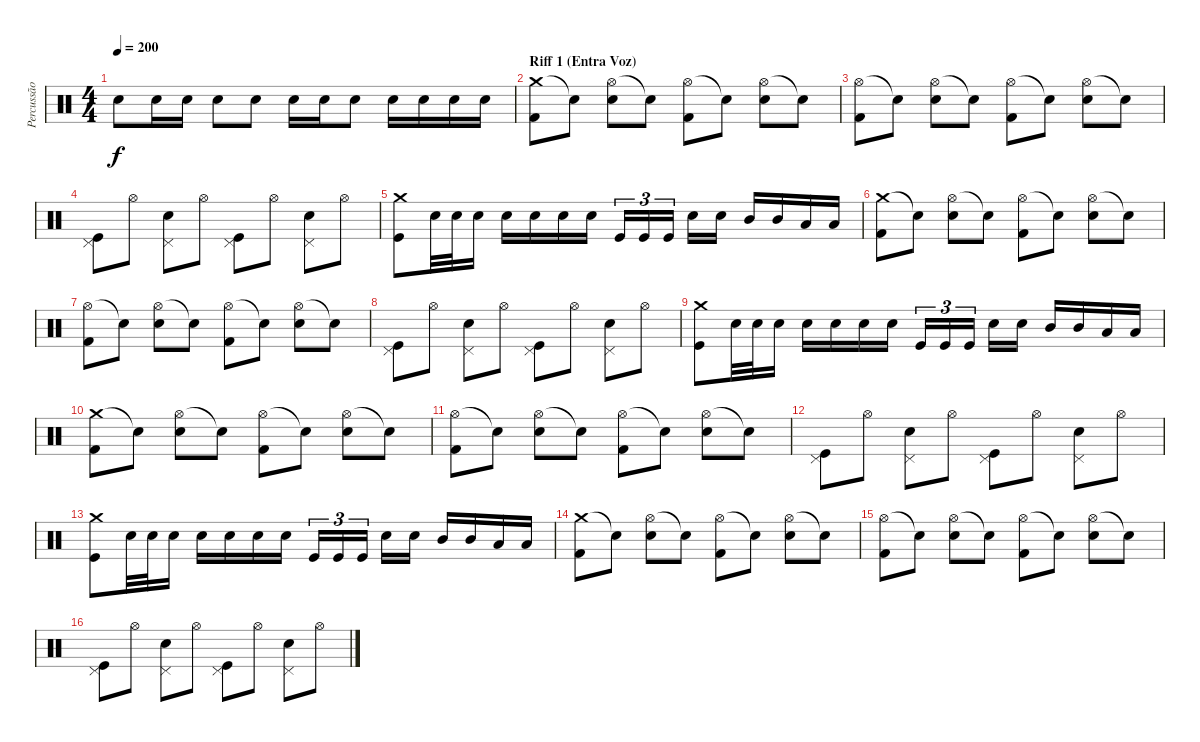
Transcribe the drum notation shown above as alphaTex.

\track ("Percussão" "Percussão") {instrument percussion}
\staff {score}
\articulation defaults
\ts (4 4)
\tempo 200
\clef neutral
\ks c "Electric Snare (hit)".8{dy f} "Electric Snare (hit)".16 "Electric Snare (hit)".16 "Electric Snare (hit)".8 "Electric Snare (hit)".8 "Electric Snare (hit)".16 "Electric Snare (hit)".16 "Electric Snare (hit)".8 "Electric Snare (hit)".16 "Electric Snare (hit)".16 "Electric Snare (hit)".16 "Electric Snare (hit)".16
|
\section ("" "Riff 1 (Entra Voz)")
("Crash medium (hit)" "Kick (hit) 2").8 "Snare (hit)"{t}.8 ("Hi-Hat (open)" "Electric Snare (hit)").8 "Snare (hit)"{t}.8 ("Hi-Hat (open)" "Kick (hit) 2").8 "Snare (hit)"{t}.8 ("Hi-Hat (open)" "Electric Snare (hit)").8 "Snare (hit)"{t}.8 |
("Hi-Hat (open)" "Kick (hit) 2").8 "Snare (hit)"{t}.8 ("Hi-Hat (open)" "Electric Snare (hit)").8 "Snare (hit)"{t}.8 ("Hi-Hat (open)" "Kick (hit) 2").8 "Snare (hit)"{t}.8 ("Hi-Hat (open)" "Electric Snare (hit)").8 "Snare (hit)"{t}.8 |
("Pedal Hi-Hat (hit)" "Kick (hit)").8 "Hi-Hat (open)".8 ("Pedal Hi-Hat (hit)" "Electric Snare (hit)").8 "Hi-Hat (open)".8 ("Pedal Hi-Hat (hit)" "Kick (hit)").8 "Hi-Hat (open)".8 ("Pedal Hi-Hat (hit)" "Electric Snare (hit)").8 "Hi-Hat (open)".8 |
("Crash medium (hit)" "Kick (hit)").8 "Electric Snare (hit)".32 "Electric Snare (hit)".32 "Electric Snare (hit)".16 "Electric Snare (hit)".16 "Electric Snare (hit)".16 "Electric Snare (hit)".16 "Electric Snare (hit)".16 "Kick (hit)".16{tu (3 2)} "Kick (hit)".16{tu (3 2)} "Kick (hit)".16{tu (3 2)} "Electric Snare (hit)".16 "Electric Snare (hit)".16 "Mid Tom (hit)".16 "Mid Tom (hit)".16 "Low Tom (hit)".16 "Low Tom (hit)".16 |
("Crash medium (hit)" "Kick (hit) 2").8 "Snare (hit)"{t}.8 ("Hi-Hat (open)" "Electric Snare (hit)").8 "Snare (hit)"{t}.8 ("Hi-Hat (open)" "Kick (hit) 2").8 "Snare (hit)"{t}.8 ("Hi-Hat (open)" "Electric Snare (hit)").8 "Snare (hit)"{t}.8 |
("Hi-Hat (open)" "Kick (hit) 2").8 "Snare (hit)"{t}.8 ("Hi-Hat (open)" "Electric Snare (hit)").8 "Snare (hit)"{t}.8 ("Hi-Hat (open)" "Kick (hit) 2").8 "Snare (hit)"{t}.8 ("Hi-Hat (open)" "Electric Snare (hit)").8 "Snare (hit)"{t}.8 |
("Pedal Hi-Hat (hit)" "Kick (hit)").8 "Hi-Hat (open)".8 ("Pedal Hi-Hat (hit)" "Electric Snare (hit)").8 "Hi-Hat (open)".8 ("Pedal Hi-Hat (hit)" "Kick (hit)").8 "Hi-Hat (open)".8 ("Pedal Hi-Hat (hit)" "Electric Snare (hit)").8 "Hi-Hat (open)".8 |
("Crash medium (hit)" "Kick (hit)").8 "Electric Snare (hit)".32 "Electric Snare (hit)".32 "Electric Snare (hit)".16 "Electric Snare (hit)".16 "Electric Snare (hit)".16 "Electric Snare (hit)".16 "Electric Snare (hit)".16 "Kick (hit)".16{tu (3 2)} "Kick (hit)".16{tu (3 2)} "Kick (hit)".16{tu (3 2)} "Electric Snare (hit)".16 "Electric Snare (hit)".16 "Mid Tom (hit)".16 "Mid Tom (hit)".16 "Low Tom (hit)".16 "Low Tom (hit)".16 |
("Crash medium (hit)" "Kick (hit) 2").8 "Snare (hit)"{t}.8 ("Hi-Hat (open)" "Electric Snare (hit)").8 "Snare (hit)"{t}.8 ("Hi-Hat (open)" "Kick (hit) 2").8 "Snare (hit)"{t}.8 ("Hi-Hat (open)" "Electric Snare (hit)").8 "Snare (hit)"{t}.8 |
("Hi-Hat (open)" "Kick (hit) 2").8 "Snare (hit)"{t}.8 ("Hi-Hat (open)" "Electric Snare (hit)").8 "Snare (hit)"{t}.8 ("Hi-Hat (open)" "Kick (hit) 2").8 "Snare (hit)"{t}.8 ("Hi-Hat (open)" "Electric Snare (hit)").8 "Snare (hit)"{t}.8 |
("Pedal Hi-Hat (hit)" "Kick (hit)").8 "Hi-Hat (open)".8 ("Pedal Hi-Hat (hit)" "Electric Snare (hit)").8 "Hi-Hat (open)".8 ("Pedal Hi-Hat (hit)" "Kick (hit)").8 "Hi-Hat (open)".8 ("Pedal Hi-Hat (hit)" "Electric Snare (hit)").8 "Hi-Hat (open)".8 |
("Crash medium (hit)" "Kick (hit)").8 "Electric Snare (hit)".32 "Electric Snare (hit)".32 "Electric Snare (hit)".16 "Electric Snare (hit)".16 "Electric Snare (hit)".16 "Electric Snare (hit)".16 "Electric Snare (hit)".16 "Kick (hit)".16{tu (3 2)} "Kick (hit)".16{tu (3 2)} "Kick (hit)".16{tu (3 2)} "Electric Snare (hit)".16 "Electric Snare (hit)".16 "Mid Tom (hit)".16 "Mid Tom (hit)".16 "Low Tom (hit)".16 "Low Tom (hit)".16 |
("Crash medium (hit)" "Kick (hit) 2").8 "Snare (hit)"{t}.8 ("Hi-Hat (open)" "Electric Snare (hit)").8 "Snare (hit)"{t}.8 ("Hi-Hat (open)" "Kick (hit) 2").8 "Snare (hit)"{t}.8 ("Hi-Hat (open)" "Electric Snare (hit)").8 "Snare (hit)"{t}.8 |
("Hi-Hat (open)" "Kick (hit) 2").8 "Snare (hit)"{t}.8 ("Hi-Hat (open)" "Electric Snare (hit)").8 "Snare (hit)"{t}.8 ("Hi-Hat (open)" "Kick (hit) 2").8 "Snare (hit)"{t}.8 ("Hi-Hat (open)" "Electric Snare (hit)").8 "Snare (hit)"{t}.8 |
("Pedal Hi-Hat (hit)" "Kick (hit)").8 "Hi-Hat (open)".8 ("Pedal Hi-Hat (hit)" "Electric Snare (hit)").8 "Hi-Hat (open)".8 ("Pedal Hi-Hat (hit)" "Kick (hit)").8 "Hi-Hat (open)".8 ("Pedal Hi-Hat (hit)" "Electric Snare (hit)").8 "Hi-Hat (open)".8
